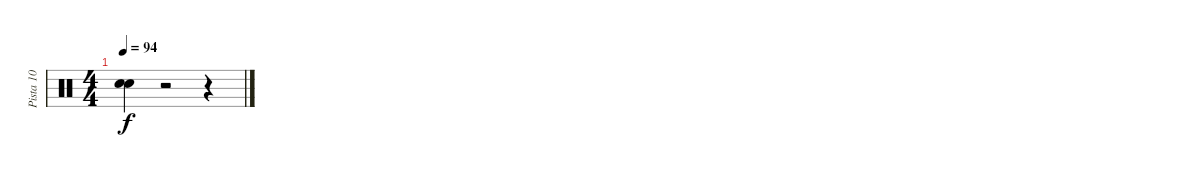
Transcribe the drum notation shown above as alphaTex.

\track ("Pista 10" "Pista 10") {instrument percussion}
\staff {score}
\articulation defaults
\ts (4 4)
\tempo 94
\clef neutral
\ks c
("Snare (hit)"{t} "Snare (hit)"{t}).4{dy f} r.2 r.4
